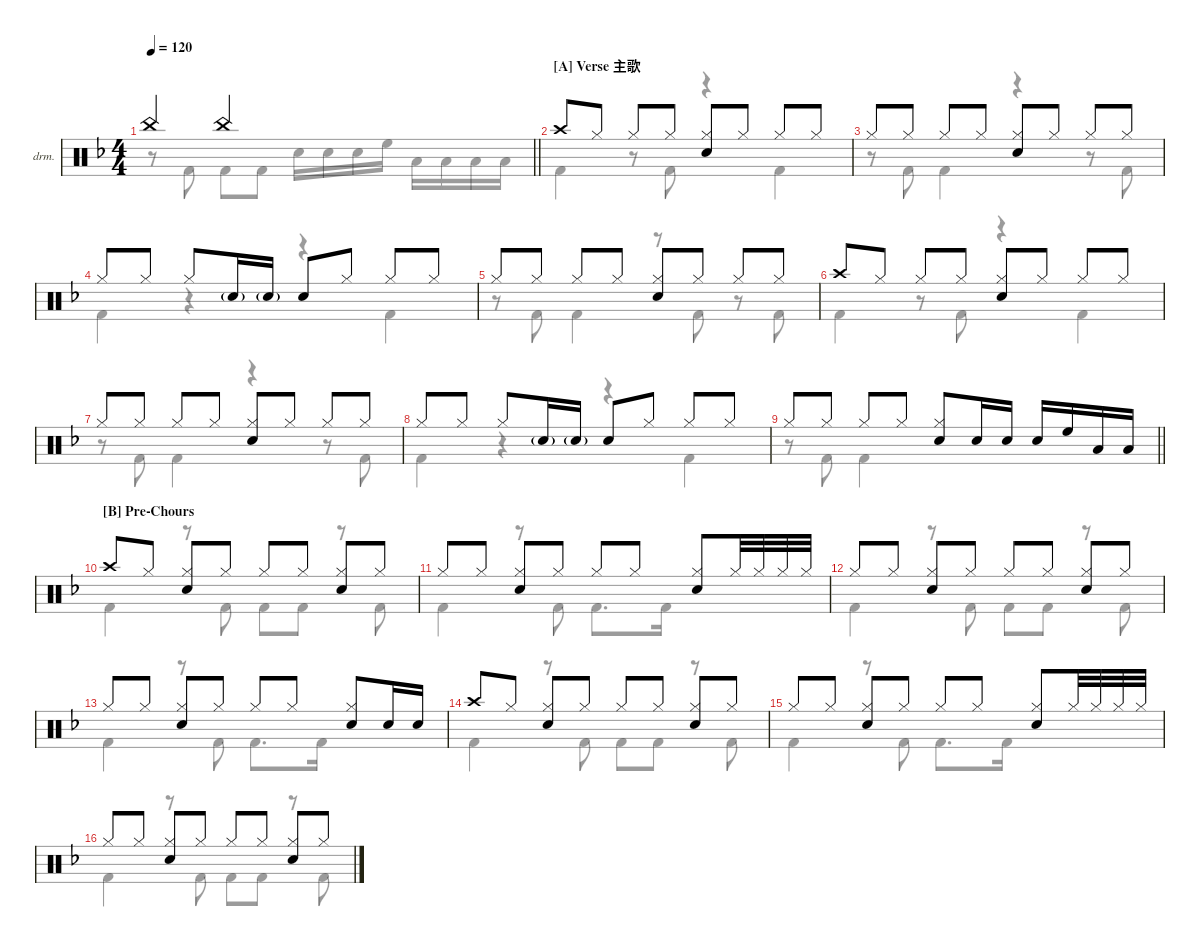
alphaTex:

\defaultSystemsLayout 4
\hideDynamics
\bracketExtendMode nobrackets
\firstSystemTrackNameOrientation horizontal
\track ("Drumkit" "drm.") {defaultSystemsLayout 4 instrument percussion}
\staff {score}
\articulation defaults
\voice
\ts (4 4)
\tempo 120
\clef neutral
\barLineRight lightlight
\ks dminor "China (hit)"{acc forcenatural}.4{dy mf beam Up} "China (hit)"{acc forcenatural}.4{beam Up}
|
\section ("A" "Verse 主歌")
"Crash high (hit)"{acc forcenatural}.8{beam Up} "Hi-Hat (closed)"{acc forcenatural}.8{beam Up} "Hi-Hat (closed)"{acc forcenatural}.8{beam Up} "Hi-Hat (closed)"{acc forcenatural}.8{beam Up} ("Hi-Hat (closed)"{acc forcenatural} "Snare (hit) 2"{acc forcenatural}).8{beam Up} "Hi-Hat (closed)"{acc forcenatural}.8{beam Up} "Hi-Hat (closed)"{acc forcenatural}.8{beam Up} "Hi-Hat (closed)"{acc forcenatural}.8{beam Up} |
"Hi-Hat (closed)"{acc forcenatural}.8{beam Up} "Hi-Hat (closed)"{acc forcenatural}.8{beam Up} "Hi-Hat (closed)"{acc forcenatural}.8{beam Up} "Hi-Hat (closed)"{acc forcenatural}.8{beam Up} ("Hi-Hat (closed)"{acc forcenatural} "Snare (hit) 2"{acc forcenatural}).8{beam Up} "Hi-Hat (closed)"{acc forcenatural}.8{beam Up} "Hi-Hat (closed)"{acc forcenatural}.8{beam Up} "Hi-Hat (closed)"{acc forcenatural}.8{beam Up} |
"Hi-Hat (closed)"{acc forcenatural}.8{beam Up} "Hi-Hat (closed)"{acc forcenatural}.8{beam Up} "Hi-Hat (closed)"{acc forcenatural}.8{beam Up} "Snare (hit) 2"{g acc forcenatural}.16{beam Up} "Snare (hit) 2"{g acc forcenatural}.16{beam Up} "Snare (hit) 2"{acc forcenatural}.8{beam Up} "Hi-Hat (closed)"{acc forcenatural}.8{beam Up} "Hi-Hat (closed)"{acc forcenatural}.8{beam Up} "Hi-Hat (closed)"{acc forcenatural}.8{beam Up} |
"Hi-Hat (closed)"{acc forcenatural}.8{beam Up} "Hi-Hat (closed)"{acc forcenatural}.8{beam Up} "Hi-Hat (closed)"{acc forcenatural}.8{beam Up} "Hi-Hat (closed)"{acc forcenatural}.8{beam Up} ("Hi-Hat (closed)"{acc forcenatural} "Snare (hit) 2"{acc forcenatural}).8{beam Up} "Hi-Hat (closed)"{acc forcenatural}.8{beam Up} "Hi-Hat (closed)"{acc forcenatural}.8{beam Up} "Hi-Hat (closed)"{acc forcenatural}.8{beam Up} |
"Crash high (hit)"{acc forcenatural}.8{beam Up} "Hi-Hat (closed)"{acc forcenatural}.8{beam Up} "Hi-Hat (closed)"{acc forcenatural}.8{beam Up} "Hi-Hat (closed)"{acc forcenatural}.8{beam Up} ("Hi-Hat (closed)"{acc forcenatural} "Snare (hit) 2"{acc forcenatural}).8{beam Up} "Hi-Hat (closed)"{acc forcenatural}.8{beam Up} "Hi-Hat (closed)"{acc forcenatural}.8{beam Up} "Hi-Hat (closed)"{acc forcenatural}.8{beam Up} |
"Hi-Hat (closed)"{acc forcenatural}.8{beam Up} "Hi-Hat (closed)"{acc forcenatural}.8{beam Up} "Hi-Hat (closed)"{acc forcenatural}.8{beam Up} "Hi-Hat (closed)"{acc forcenatural}.8{beam Up} ("Hi-Hat (closed)"{acc forcenatural} "Snare (hit) 2"{acc forcenatural}).8{beam Up} "Hi-Hat (closed)"{acc forcenatural}.8{beam Up} "Hi-Hat (closed)"{acc forcenatural}.8{beam Up} "Hi-Hat (closed)"{acc forcenatural}.8{beam Up} |
"Hi-Hat (closed)"{acc forcenatural}.8{beam Up} "Hi-Hat (closed)"{acc forcenatural}.8{beam Up} "Hi-Hat (closed)"{acc forcenatural}.8{beam Up} "Snare (hit) 2"{g acc forcenatural}.16{beam Up} "Snare (hit) 2"{g acc forcenatural}.16{beam Up} "Snare (hit) 2"{acc forcenatural}.8{beam Up} "Hi-Hat (closed)"{acc forcenatural}.8{beam Up} "Hi-Hat (closed)"{acc forcenatural}.8{beam Up} "Hi-Hat (closed)"{acc forcenatural}.8{beam Up} |
\barLineRight lightlight "Hi-Hat (closed)"{acc forcenatural}.8{beam Up} "Hi-Hat (closed)"{acc forcenatural}.8{beam Up} "Hi-Hat (closed)"{acc forcenatural}.8{beam Up} "Hi-Hat (closed)"{acc forcenatural}.8{beam Up}
("Hi-Hat (closed)"{acc forcenatural} "Snare (hit) 2"{acc forcenatural}).8{beam Up} "Snare (hit) 2"{acc forcenatural}.16{beam Up} "Snare (hit) 2"{acc forcenatural}.16{beam Up} "Snare (hit) 2"{acc forcenatural}.16{beam Up} "High Floor Tom (hit)"{acc forcenatural}.16{beam Up} "Low Tom (hit)"{acc forcenatural}.16{beam Up} "Low Tom (hit)"{acc forcenatural}.16{beam Up} |
\section ("B" "Pre-Chours")
"Crash high (hit)"{acc forcenatural}.8{beam Up} "Hi-Hat (closed)"{acc forcenatural}.8{beam Up} ("Hi-Hat (closed)"{acc forcenatural} "Snare (hit) 2"{acc forcenatural}).8{beam Up} "Hi-Hat (closed)"{acc forcenatural}.8{beam Up} "Hi-Hat (closed)"{acc forcenatural}.8{beam Up} "Hi-Hat (closed)"{acc forcenatural}.8{beam Up} ("Hi-Hat (closed)"{acc forcenatural} "Snare (hit) 2"{acc forcenatural}).8{beam Up} "Hi-Hat (closed)"{acc forcenatural}.8{beam Up} |
"Hi-Hat (closed)"{acc forcenatural}.8{beam Up} "Hi-Hat (closed)"{acc forcenatural}.8{beam Up} ("Hi-Hat (closed)"{acc forcenatural} "Snare (hit) 2"{acc forcenatural}).8{beam Up} "Hi-Hat (closed)"{acc forcenatural}.8{beam Up} "Hi-Hat (closed)"{acc forcenatural}.8{beam Up} "Hi-Hat (closed)"{acc forcenatural}.8{beam Up} ("Hi-Hat (closed)"{acc forcenatural} "Snare (hit) 2"{acc forcenatural}).8{beam Up} "Hi-Hat (closed)"{acc forcenatural}.32{beam Up} "Hi-Hat (closed)"{acc forcenatural}.32{beam Up} "Hi-Hat (closed)"{acc forcenatural}.32{beam Up} "Hi-Hat (closed)"{acc forcenatural}.32{beam Up} |
"Hi-Hat (closed)"{acc forcenatural}.8{beam Up} "Hi-Hat (closed)"{acc forcenatural}.8{beam Up} ("Hi-Hat (closed)"{acc forcenatural} "Snare (hit) 2"{acc forcenatural}).8{beam Up} "Hi-Hat (closed)"{acc forcenatural}.8{beam Up} "Hi-Hat (closed)"{acc forcenatural}.8{beam Up} "Hi-Hat (closed)"{acc forcenatural}.8{beam Up} ("Hi-Hat (closed)"{acc forcenatural} "Snare (hit) 2"{acc forcenatural}).8{beam Up} "Hi-Hat (closed)"{acc forcenatural}.8{beam Up} |
"Hi-Hat (closed)"{acc forcenatural}.8{beam Up} "Hi-Hat (closed)"{acc forcenatural}.8{beam Up} ("Hi-Hat (closed)"{acc forcenatural} "Snare (hit) 2"{acc forcenatural}).8{beam Up} "Hi-Hat (closed)"{acc forcenatural}.8{beam Up} "Hi-Hat (closed)"{acc forcenatural}.8{beam Up} "Hi-Hat (closed)"{acc forcenatural}.8{beam Up} ("Hi-Hat (closed)"{acc forcenatural} "Snare (hit) 2"{acc forcenatural}).8{beam Up} "Snare (hit) 2"{acc forcenatural}.16{beam Up} "Snare (hit) 2"{acc forcenatural}.16{beam Up} |
"Crash high (hit)"{acc forcenatural}.8{beam Up} "Hi-Hat (closed)"{acc forcenatural}.8{beam Up} ("Hi-Hat (closed)"{acc forcenatural} "Snare (hit) 2"{acc forcenatural}).8{beam Up} "Hi-Hat (closed)"{acc forcenatural}.8{beam Up} "Hi-Hat (closed)"{acc forcenatural}.8{beam Up} "Hi-Hat (closed)"{acc forcenatural}.8{beam Up} ("Hi-Hat (closed)"{acc forcenatural} "Snare (hit) 2"{acc forcenatural}).8{beam Up} "Hi-Hat (closed)"{acc forcenatural}.8{beam Up} |
"Hi-Hat (closed)"{acc forcenatural}.8{beam Up} "Hi-Hat (closed)"{acc forcenatural}.8{beam Up} ("Hi-Hat (closed)"{acc forcenatural} "Snare (hit) 2"{acc forcenatural}).8{beam Up} "Hi-Hat (closed)"{acc forcenatural}.8{beam Up} "Hi-Hat (closed)"{acc forcenatural}.8{beam Up} "Hi-Hat (closed)"{acc forcenatural}.8{beam Up} ("Hi-Hat (closed)"{acc forcenatural} "Snare (hit) 2"{acc forcenatural}).8{beam Up} "Hi-Hat (closed)"{acc forcenatural}.32{beam Up} "Hi-Hat (closed)"{acc forcenatural}.32{beam Up} "Hi-Hat (closed)"{acc forcenatural}.32{beam Up} "Hi-Hat (closed)"{acc forcenatural}.32{beam Up} |
"Hi-Hat (closed)"{acc forcenatural}.8{beam Up} "Hi-Hat (closed)"{acc forcenatural}.8{beam Up} ("Hi-Hat (closed)"{acc forcenatural} "Snare (hit) 2"{acc forcenatural}).8{beam Up} "Hi-Hat (closed)"{acc forcenatural}.8{beam Up} "Hi-Hat (closed)"{acc forcenatural}.8{beam Up} "Hi-Hat (closed)"{acc forcenatural}.8{beam Up} ("Hi-Hat (closed)"{acc forcenatural} "Snare (hit) 2"{acc forcenatural}).8{beam Up} "Hi-Hat (closed)"{acc forcenatural}.8{beam Up}
\voice
\clef neutral
\ottava regular
\simile none
\barLineRight lightlight
\ks dminor
r.8{dy mf beam Down} "Kick (hit) 2"{acc forcenatural}.8{beam Down} "Kick (hit) 2"{acc forcenatural}.8{beam Down} "Kick (hit) 2"{acc forcenatural}.8{beam Down} "Snare (hit) 2"{acc forcenatural}.16{beam Down} "Snare (hit) 2"{acc forcenatural}.16{beam Down} "Snare (hit) 2"{acc forcenatural}.16{beam Down} "High Floor Tom (hit)"{acc forcenatural}.16{beam Down} "Low Tom (hit)"{acc forcenatural}.16{beam Down} "Low Tom (hit)"{acc forcenatural}.16{beam Down} "Low Tom (hit)"{acc forcenatural}.16{beam Down} "Low Tom (hit)"{acc forcenatural}.16{beam Down} |
"Kick (hit) 2"{acc forcenatural}.4{beam Down} r.8{beam Down} "Kick (hit) 2"{acc forcenatural}.8{beam Down} r.4{beam Down} "Kick (hit) 2"{acc forcenatural}.4{beam Down} |
r.8{beam Down} "Kick (hit) 2"{acc forcenatural}.8{beam Down} "Kick (hit) 2"{acc forcenatural}.4{beam Down} r.4{beam Down} r.8{beam Down} "Kick (hit) 2"{acc forcenatural}.8{beam Down} |
"Kick (hit) 2"{acc forcenatural}.4{beam Down} r.4{beam Down} r.4{beam Down} "Kick (hit) 2"{acc forcenatural}.4{beam Down} |
r.8{beam Down} "Kick (hit) 2"{acc forcenatural}.8{beam Down} "Kick (hit) 2"{acc forcenatural}.4{beam Down} r.8{beam Down} "Kick (hit) 2"{acc forcenatural}.8{beam Down} r.8{beam Down} "Kick (hit) 2"{acc forcenatural}.8{beam Down} |
"Kick (hit) 2"{acc forcenatural}.4{beam Down} r.8{beam Down} "Kick (hit) 2"{acc forcenatural}.8{beam Down} r.4{beam Down} "Kick (hit) 2"{acc forcenatural}.4{beam Down} |
r.8{beam Down} "Kick (hit) 2"{acc forcenatural}.8{beam Down} "Kick (hit) 2"{acc forcenatural}.4{beam Down} r.4{beam Down} r.8{beam Down} "Kick (hit) 2"{acc forcenatural}.8{beam Down} |
"Kick (hit) 2"{acc forcenatural}.4{beam Down} r.4{beam Down} r.4{beam Down} "Kick (hit) 2"{acc forcenatural}.4{beam Down} |
\barLineRight lightlight
r.8{beam Down} "Kick (hit) 2"{acc forcenatural}.8{beam Down} "Kick (hit) 2"{acc forcenatural}.4{beam Down} |
"Kick (hit) 2"{acc forcenatural}.4{beam Down} r.8{beam Down} "Kick (hit) 2"{acc forcenatural}.8{beam Down} "Kick (hit) 2"{acc forcenatural}.8{beam Down} "Kick (hit) 2"{acc forcenatural}.8{beam Down} r.8{beam Down} "Kick (hit) 2"{acc forcenatural}.8{beam Down} |
"Kick (hit) 2"{acc forcenatural}.4{beam Down} r.8{beam Down} "Kick (hit) 2"{acc forcenatural}.8{beam Down} "Kick (hit) 2"{acc forcenatural}.8{d beam Down} "Kick (hit) 2"{acc forcenatural}.16{beam Down} |
"Kick (hit) 2"{acc forcenatural}.4{beam Down} r.8{beam Down} "Kick (hit) 2"{acc forcenatural}.8{beam Down} "Kick (hit) 2"{acc forcenatural}.8{beam Down} "Kick (hit) 2"{acc forcenatural}.8{beam Down} r.8{beam Down} "Kick (hit) 2"{acc forcenatural}.8{beam Down} |
"Kick (hit) 2"{acc forcenatural}.4{beam Down} r.8{beam Down} "Kick (hit) 2"{acc forcenatural}.8{beam Down} "Kick (hit) 2"{acc forcenatural}.8{d beam Down} "Kick (hit) 2"{acc forcenatural}.16{beam Down} |
"Kick (hit) 2"{acc forcenatural}.4{beam Down} r.8{beam Down} "Kick (hit) 2"{acc forcenatural}.8{beam Down} "Kick (hit) 2"{acc forcenatural}.8{beam Down} "Kick (hit) 2"{acc forcenatural}.8{beam Down} r.8{beam Down} "Kick (hit) 2"{acc forcenatural}.8{beam Down} |
"Kick (hit) 2"{acc forcenatural}.4{beam Down} r.8{beam Down} "Kick (hit) 2"{acc forcenatural}.8{beam Down} "Kick (hit) 2"{acc forcenatural}.8{d beam Down} "Kick (hit) 2"{acc forcenatural}.16{beam Down} |
"Kick (hit) 2"{acc forcenatural}.4{beam Down} r.8{beam Down} "Kick (hit) 2"{acc forcenatural}.8{beam Down} "Kick (hit) 2"{acc forcenatural}.8{beam Down} "Kick (hit) 2"{acc forcenatural}.8{beam Down} r.8{beam Down} "Kick (hit) 2"{acc forcenatural}.8{beam Down}
